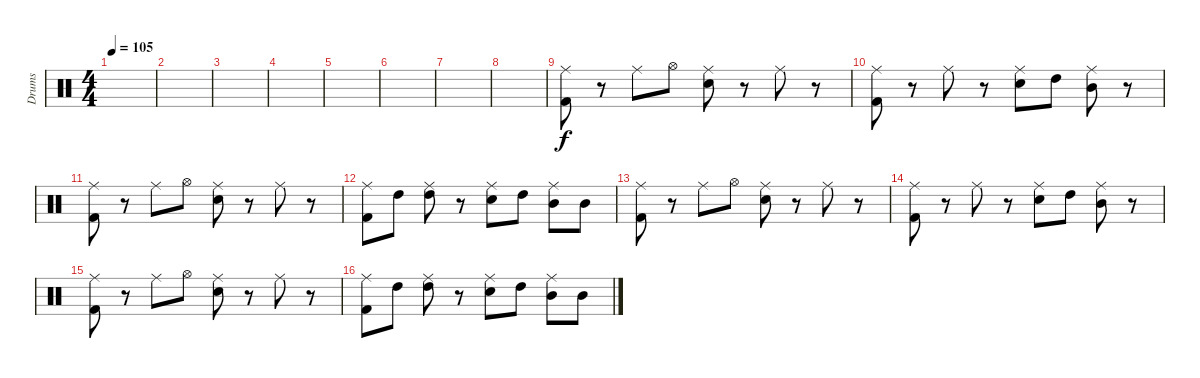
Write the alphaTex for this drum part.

\track ("Drums" "Drums") {instrument percussion}
\staff {score}
\articulation defaults
\ts (4 4)
\tempo 105
\clef neutral
\ks c
|
|
|
|
|
|
|
|
("Ride (middle)" "Kick (hit) 2").8 r.8 "Ride (middle)".8 "Hi-Hat (open)".8 ("Ride (middle)" "Snare (hit) 2").8 r.8 "Ride (middle)".8 r.8 |
("Ride (middle)" "Kick (hit) 2").8 r.8 "Ride (middle)".8 r.8 ("Ride (middle)" "Snare (hit) 2").8 "High Tom (hit)".8 ("Ride (middle)" "Mid Tom (hit)").8 r.8 |
("Ride (middle)" "Kick (hit) 2").8 r.8 "Ride (middle)".8 "Hi-Hat (open)".8 ("Ride (middle)" "Snare (hit) 2").8 r.8 "Ride (middle)".8 r.8 |
("Ride (middle)" "Kick (hit) 2").8 "High Tom (hit)".8 ("Ride (middle)" "High Tom (hit)").8 r.8 ("Ride (middle)" "Snare (hit) 2").8 "High Tom (hit)".8 ("Ride (middle)" "Mid Tom (hit)").8 "Mid Tom (hit)".8 |
("Ride (middle)" "Kick (hit) 2").8 r.8 "Ride (middle)".8 "Hi-Hat (open)".8 ("Ride (middle)" "Snare (hit) 2").8 r.8 "Ride (middle)".8 r.8 |
("Ride (middle)" "Kick (hit) 2").8 r.8 "Ride (middle)".8 r.8 ("Ride (middle)" "Snare (hit) 2").8 "High Tom (hit)".8 ("Ride (middle)" "Mid Tom (hit)").8 r.8 |
("Ride (middle)" "Kick (hit) 2").8 r.8 "Ride (middle)".8 "Hi-Hat (open)".8 ("Ride (middle)" "Snare (hit) 2").8 r.8 "Ride (middle)".8 r.8 |
("Ride (middle)" "Kick (hit) 2").8 "High Tom (hit)".8 ("Ride (middle)" "High Tom (hit)").8 r.8 ("Ride (middle)" "Snare (hit) 2").8 "High Tom (hit)".8 ("Ride (middle)" "Mid Tom (hit)").8 "Mid Tom (hit)".8
